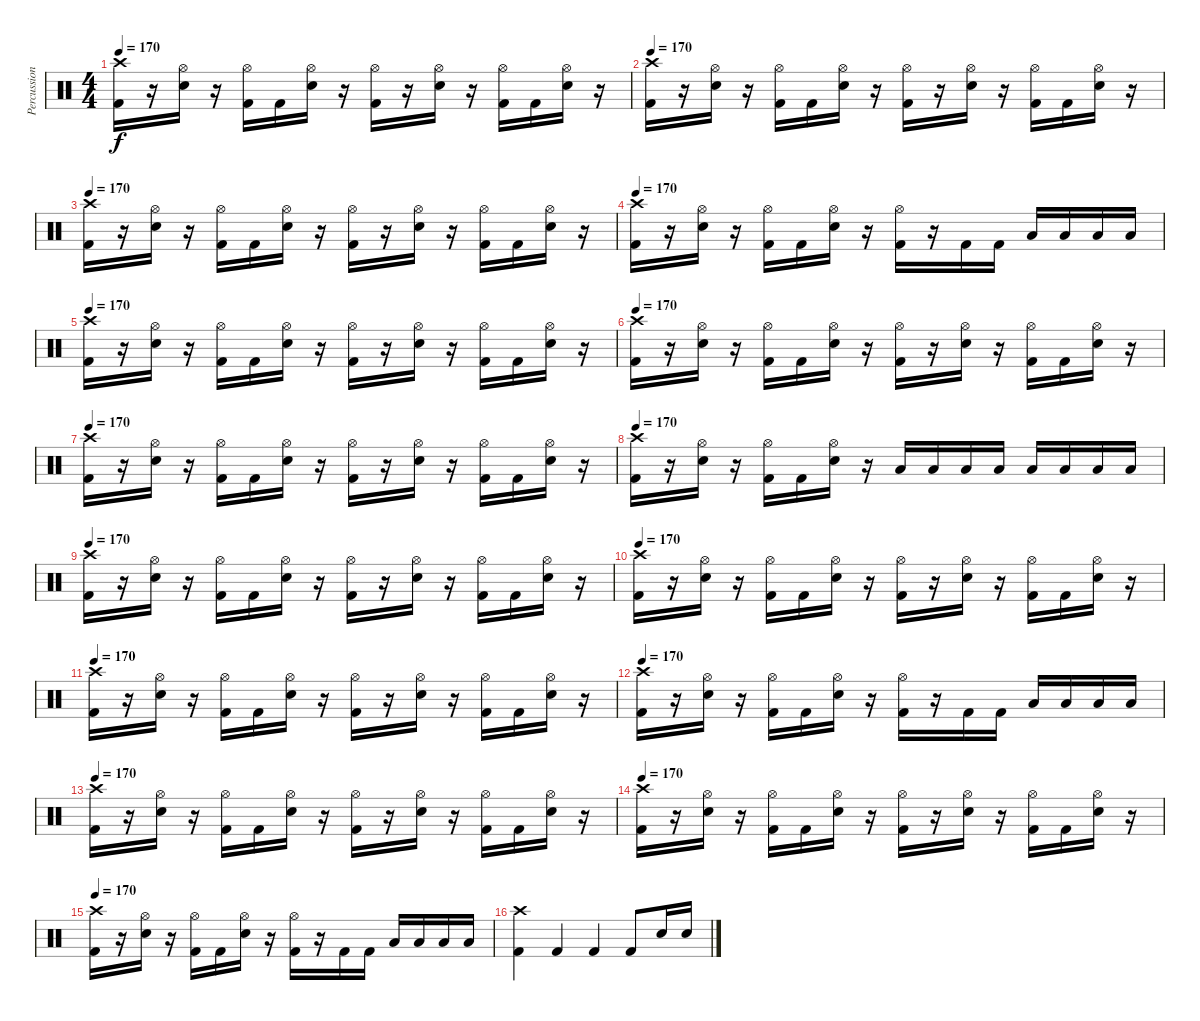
\track ("Percussioni" "Percussion") {instrument percussion}
\staff {score}
\articulation defaults
\ts (4 4)
\tempo 170
\clef neutral
\ks c
("Kick (hit) 2" "Crash high (hit)").16{dy f} r.16 ("Snare (hit) 2" "Hi-Hat (open)").16 r.16 ("Kick (hit) 2" "Hi-Hat (open)").16 "Kick (hit) 2".16 ("Snare (hit) 2" "Hi-Hat (open)").16 r.16 ("Kick (hit) 2" "Hi-Hat (open)").16 r.16 ("Snare (hit) 2" "Hi-Hat (open)").16 r.16 ("Kick (hit) 2" "Hi-Hat (open)").16 "Kick (hit) 2".16 ("Snare (hit) 2" "Hi-Hat (open)").16 r.16 |
\tempo 170
("Kick (hit) 2" "Crash high (hit)").16 r.16 ("Snare (hit) 2" "Hi-Hat (open)").16 r.16 ("Kick (hit) 2" "Hi-Hat (open)").16 "Kick (hit) 2".16 ("Snare (hit) 2" "Hi-Hat (open)").16 r.16 ("Kick (hit) 2" "Hi-Hat (open)").16 r.16 ("Snare (hit) 2" "Hi-Hat (open)").16 r.16 ("Kick (hit) 2" "Hi-Hat (open)").16 "Kick (hit) 2".16 ("Snare (hit) 2" "Hi-Hat (open)").16 r.16 |
\tempo 170
("Kick (hit) 2" "Crash high (hit)").16 r.16 ("Snare (hit) 2" "Hi-Hat (open)").16 r.16 ("Kick (hit) 2" "Hi-Hat (open)").16 "Kick (hit) 2".16 ("Snare (hit) 2" "Hi-Hat (open)").16 r.16 ("Kick (hit) 2" "Hi-Hat (open)").16 r.16 ("Snare (hit) 2" "Hi-Hat (open)").16 r.16 ("Kick (hit) 2" "Hi-Hat (open)").16 "Kick (hit) 2".16 ("Snare (hit) 2" "Hi-Hat (open)").16 r.16 |
\tempo 170
("Kick (hit) 2" "Crash high (hit)").16 r.16 ("Snare (hit) 2" "Hi-Hat (open)").16 r.16 ("Kick (hit) 2" "Hi-Hat (open)").16 "Kick (hit) 2".16 ("Snare (hit) 2" "Hi-Hat (open)").16 r.16 ("Kick (hit) 2" "Hi-Hat (open)").16 r.16 "Kick (hit) 2".16 "Kick (hit) 2".16 "Low Tom (hit)".16 "Low Tom (hit)".16 "Low Tom (hit)".16 "Low Tom (hit)".16 |
\tempo 170
("Kick (hit) 2" "Crash high (hit)").16 r.16 ("Snare (hit) 2" "Hi-Hat (open)").16 r.16 ("Kick (hit) 2" "Hi-Hat (open)").16 "Kick (hit) 2".16 ("Snare (hit) 2" "Hi-Hat (open)").16 r.16 ("Kick (hit) 2" "Hi-Hat (open)").16 r.16 ("Snare (hit) 2" "Hi-Hat (open)").16 r.16 ("Kick (hit) 2" "Hi-Hat (open)").16 "Kick (hit) 2".16 ("Snare (hit) 2" "Hi-Hat (open)").16 r.16 |
\tempo 170
("Kick (hit) 2" "Crash high (hit)").16 r.16 ("Snare (hit) 2" "Hi-Hat (open)").16 r.16 ("Kick (hit) 2" "Hi-Hat (open)").16 "Kick (hit) 2".16 ("Snare (hit) 2" "Hi-Hat (open)").16 r.16 ("Kick (hit) 2" "Hi-Hat (open)").16 r.16 ("Snare (hit) 2" "Hi-Hat (open)").16 r.16 ("Kick (hit) 2" "Hi-Hat (open)").16 "Kick (hit) 2".16 ("Snare (hit) 2" "Hi-Hat (open)").16 r.16 |
\tempo 170
("Kick (hit) 2" "Crash high (hit)").16 r.16 ("Snare (hit) 2" "Hi-Hat (open)").16 r.16 ("Kick (hit) 2" "Hi-Hat (open)").16 "Kick (hit) 2".16 ("Snare (hit) 2" "Hi-Hat (open)").16 r.16 ("Kick (hit) 2" "Hi-Hat (open)").16 r.16 ("Snare (hit) 2" "Hi-Hat (open)").16 r.16 ("Kick (hit) 2" "Hi-Hat (open)").16 "Kick (hit) 2".16 ("Snare (hit) 2" "Hi-Hat (open)").16 r.16 |
\tempo 170
("Kick (hit) 2" "Crash high (hit)").16 r.16 ("Snare (hit) 2" "Hi-Hat (open)").16 r.16 ("Kick (hit) 2" "Hi-Hat (open)").16 "Kick (hit) 2".16 ("Snare (hit) 2" "Hi-Hat (open)").16 r.16 "Low Tom (hit)".16 "Low Tom (hit)".16 "Low Tom (hit)".16 "Low Tom (hit)".16 "Low Tom (hit)".16 "Low Tom (hit)".16 "Low Tom (hit)".16 "Low Tom (hit)".16 |
\tempo 170
("Kick (hit) 2" "Crash high (hit)").16 r.16 ("Snare (hit) 2" "Hi-Hat (open)").16 r.16 ("Kick (hit) 2" "Hi-Hat (open)").16 "Kick (hit) 2".16 ("Snare (hit) 2" "Hi-Hat (open)").16 r.16 ("Kick (hit) 2" "Hi-Hat (open)").16 r.16 ("Snare (hit) 2" "Hi-Hat (open)").16 r.16 ("Kick (hit) 2" "Hi-Hat (open)").16 "Kick (hit) 2".16 ("Snare (hit) 2" "Hi-Hat (open)").16 r.16 |
\tempo 170
("Kick (hit) 2" "Crash high (hit)").16 r.16 ("Snare (hit) 2" "Hi-Hat (open)").16 r.16 ("Kick (hit) 2" "Hi-Hat (open)").16 "Kick (hit) 2".16 ("Snare (hit) 2" "Hi-Hat (open)").16 r.16 ("Kick (hit) 2" "Hi-Hat (open)").16 r.16 ("Snare (hit) 2" "Hi-Hat (open)").16 r.16 ("Kick (hit) 2" "Hi-Hat (open)").16 "Kick (hit) 2".16 ("Snare (hit) 2" "Hi-Hat (open)").16 r.16 |
\tempo 170
("Kick (hit) 2" "Crash high (hit)").16 r.16 ("Snare (hit) 2" "Hi-Hat (open)").16 r.16 ("Kick (hit) 2" "Hi-Hat (open)").16 "Kick (hit) 2".16 ("Snare (hit) 2" "Hi-Hat (open)").16 r.16 ("Kick (hit) 2" "Hi-Hat (open)").16 r.16 ("Snare (hit) 2" "Hi-Hat (open)").16 r.16 ("Kick (hit) 2" "Hi-Hat (open)").16 "Kick (hit) 2".16 ("Snare (hit) 2" "Hi-Hat (open)").16 r.16 |
\tempo 170
("Kick (hit) 2" "Crash high (hit)").16 r.16 ("Snare (hit) 2" "Hi-Hat (open)").16 r.16 ("Kick (hit) 2" "Hi-Hat (open)").16 "Kick (hit) 2".16 ("Snare (hit) 2" "Hi-Hat (open)").16 r.16 ("Kick (hit) 2" "Hi-Hat (open)").16 r.16 "Kick (hit) 2".16 "Kick (hit) 2".16 "Low Tom (hit)".16 "Low Tom (hit)".16 "Low Tom (hit)".16 "Low Tom (hit)".16 |
\tempo 170
("Kick (hit) 2" "Crash high (hit)").16 r.16 ("Snare (hit) 2" "Hi-Hat (open)").16 r.16 ("Kick (hit) 2" "Hi-Hat (open)").16 "Kick (hit) 2".16 ("Snare (hit) 2" "Hi-Hat (open)").16 r.16 ("Kick (hit) 2" "Hi-Hat (open)").16 r.16 ("Snare (hit) 2" "Hi-Hat (open)").16 r.16 ("Kick (hit) 2" "Hi-Hat (open)").16 "Kick (hit) 2".16 ("Snare (hit) 2" "Hi-Hat (open)").16 r.16 |
\tempo 170
("Kick (hit) 2" "Crash high (hit)").16 r.16 ("Snare (hit) 2" "Hi-Hat (open)").16 r.16 ("Kick (hit) 2" "Hi-Hat (open)").16 "Kick (hit) 2".16 ("Snare (hit) 2" "Hi-Hat (open)").16 r.16 ("Kick (hit) 2" "Hi-Hat (open)").16 r.16 ("Snare (hit) 2" "Hi-Hat (open)").16 r.16 ("Kick (hit) 2" "Hi-Hat (open)").16 "Kick (hit) 2".16 ("Snare (hit) 2" "Hi-Hat (open)").16 r.16 |
\tempo 170
("Kick (hit) 2" "Crash high (hit)").16 r.16 ("Snare (hit) 2" "Hi-Hat (open)").16 r.16 ("Kick (hit) 2" "Hi-Hat (open)").16 "Kick (hit) 2".16 ("Snare (hit) 2" "Hi-Hat (open)").16 r.16 ("Kick (hit) 2" "Hi-Hat (open)").16 r.16 "Kick (hit) 2".16 "Kick (hit) 2".16 "Low Tom (hit)".16 "Low Tom (hit)".16 "Low Tom (hit)".16 "Low Tom (hit)".16 |
("Crash high (hit)" "Kick (hit) 2").4 "Kick (hit) 2".4 "Kick (hit) 2".4 "Kick (hit) 2".8 "Snare (hit) 2".16 "Snare (hit) 2".16
